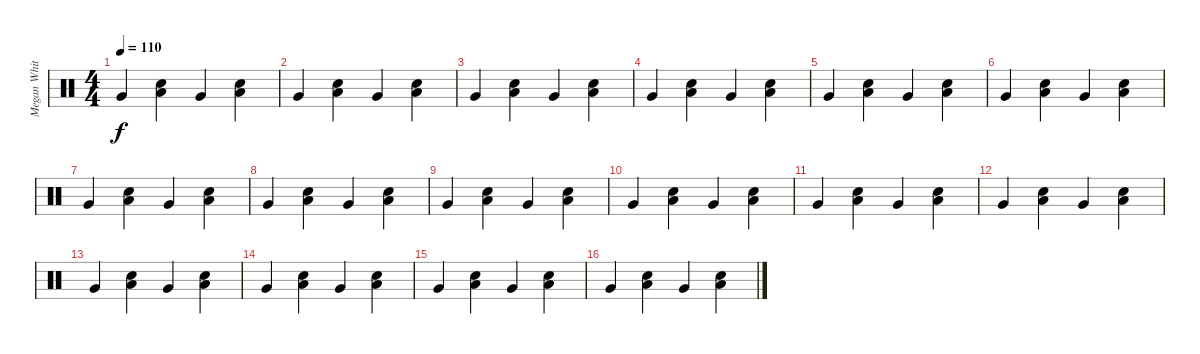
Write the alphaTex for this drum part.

\track ("Megan White (drums)" "Megan Whit") {instrument percussion}
\staff {score}
\articulation defaults
\ts (4 4)
\tempo 110
\clef neutral
\ks c "Very Low Tom (hit)".4{dy f}
("Electric Snare (hit)" "Low Floor Tom (hit)").4 "Very Low Tom (hit)".4 ("Electric Snare (hit)" "Low Floor Tom (hit)").4 |
"Very Low Tom (hit)".4 ("Electric Snare (hit)" "Low Floor Tom (hit)").4 "Very Low Tom (hit)".4 ("Electric Snare (hit)" "Low Floor Tom (hit)").4 |
"Very Low Tom (hit)".4 ("Electric Snare (hit)" "Low Floor Tom (hit)").4 "Very Low Tom (hit)".4 ("Electric Snare (hit)" "Low Floor Tom (hit)").4 |
"Very Low Tom (hit)".4 ("Electric Snare (hit)" "Low Floor Tom (hit)").4 "Very Low Tom (hit)".4 ("Electric Snare (hit)" "Low Floor Tom (hit)").4 |
"Very Low Tom (hit)".4 ("Electric Snare (hit)" "Low Floor Tom (hit)").4 "Very Low Tom (hit)".4 ("Electric Snare (hit)" "Low Floor Tom (hit)").4 |
"Very Low Tom (hit)".4 ("Electric Snare (hit)" "Low Floor Tom (hit)").4 "Very Low Tom (hit)".4 ("Electric Snare (hit)" "Low Floor Tom (hit)").4 |
"Very Low Tom (hit)".4 ("Electric Snare (hit)" "Low Floor Tom (hit)").4 "Very Low Tom (hit)".4 ("Electric Snare (hit)" "Low Floor Tom (hit)").4 |
"Very Low Tom (hit)".4 ("Electric Snare (hit)" "Low Floor Tom (hit)").4 "Very Low Tom (hit)".4 ("Electric Snare (hit)" "Low Floor Tom (hit)").4 |
"Very Low Tom (hit)".4 ("Electric Snare (hit)" "Low Floor Tom (hit)").4 "Very Low Tom (hit)".4 ("Electric Snare (hit)" "Low Floor Tom (hit)").4 |
"Very Low Tom (hit)".4 ("Electric Snare (hit)" "Low Floor Tom (hit)").4 "Very Low Tom (hit)".4 ("Electric Snare (hit)" "Low Floor Tom (hit)").4 |
"Very Low Tom (hit)".4 ("Electric Snare (hit)" "Low Floor Tom (hit)").4 "Very Low Tom (hit)".4 ("Electric Snare (hit)" "Low Floor Tom (hit)").4 |
"Very Low Tom (hit)".4 ("Electric Snare (hit)" "Low Floor Tom (hit)").4 "Very Low Tom (hit)".4 ("Electric Snare (hit)" "Low Floor Tom (hit)").4 |
"Very Low Tom (hit)".4 ("Electric Snare (hit)" "Low Floor Tom (hit)").4 "Very Low Tom (hit)".4 ("Electric Snare (hit)" "Low Floor Tom (hit)").4 |
"Very Low Tom (hit)".4 ("Electric Snare (hit)" "Low Floor Tom (hit)").4 "Very Low Tom (hit)".4 ("Electric Snare (hit)" "Low Floor Tom (hit)").4 |
"Very Low Tom (hit)".4 ("Electric Snare (hit)" "Low Floor Tom (hit)").4 "Very Low Tom (hit)".4 ("Electric Snare (hit)" "Low Floor Tom (hit)").4 |
"Very Low Tom (hit)".4 ("Electric Snare (hit)" "Low Floor Tom (hit)").4 "Very Low Tom (hit)".4 ("Electric Snare (hit)" "Low Floor Tom (hit)").4
